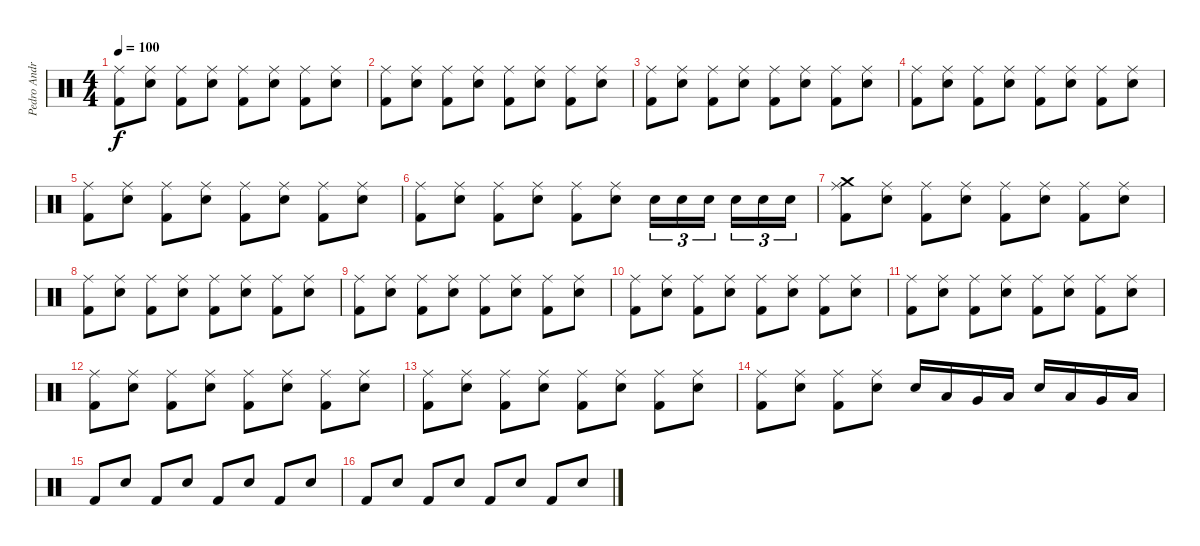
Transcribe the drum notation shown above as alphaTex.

\track ("Pedro Andreu" "Pedro Andr") {instrument percussion}
\staff {score}
\articulation defaults
\ts (4 4)
\tempo 100
\clef neutral
\ks c
("Ride (middle)" "Kick (hit) 2").8{dy f} ("Ride (middle)" "Snare (hit) 2").8 ("Ride (middle)" "Kick (hit) 2").8 ("Ride (middle)" "Snare (hit) 2").8 ("Ride (middle)" "Kick (hit) 2").8 ("Snare (hit) 2" "Ride (middle)").8 ("Kick (hit) 2" "Ride (middle)").8 ("Snare (hit) 2" "Ride (middle)").8 |
("Ride (middle)" "Kick (hit) 2").8 ("Ride (middle)" "Snare (hit) 2").8 ("Ride (middle)" "Kick (hit) 2").8 ("Ride (middle)" "Snare (hit) 2").8 ("Ride (middle)" "Kick (hit) 2").8 ("Snare (hit) 2" "Ride (middle)").8 ("Kick (hit) 2" "Ride (middle)").8 ("Snare (hit) 2" "Ride (middle)").8 |
("Ride (middle)" "Kick (hit) 2").8 ("Ride (middle)" "Snare (hit) 2").8 ("Ride (middle)" "Kick (hit) 2").8 ("Ride (middle)" "Snare (hit) 2").8 ("Ride (middle)" "Kick (hit) 2").8 ("Snare (hit) 2" "Ride (middle)").8 ("Kick (hit) 2" "Ride (middle)").8 ("Snare (hit) 2" "Ride (middle)").8 |
("Ride (middle)" "Kick (hit) 2").8 ("Ride (middle)" "Snare (hit) 2").8 ("Ride (middle)" "Kick (hit) 2").8 ("Ride (middle)" "Snare (hit) 2").8 ("Ride (middle)" "Kick (hit) 2").8 ("Snare (hit) 2" "Ride (middle)").8 ("Kick (hit) 2" "Ride (middle)").8 ("Snare (hit) 2" "Ride (middle)").8 |
("Ride (middle)" "Kick (hit) 2").8 ("Ride (middle)" "Snare (hit) 2").8 ("Ride (middle)" "Kick (hit) 2").8 ("Ride (middle)" "Snare (hit) 2").8 ("Ride (middle)" "Kick (hit) 2").8 ("Snare (hit) 2" "Ride (middle)").8 ("Kick (hit) 2" "Ride (middle)").8 ("Snare (hit) 2" "Ride (middle)").8 |
("Ride (middle)" "Kick (hit) 2").8 ("Ride (middle)" "Snare (hit) 2").8 ("Ride (middle)" "Kick (hit) 2").8 ("Ride (middle)" "Snare (hit) 2").8 ("Ride (middle)" "Kick (hit) 2").8 ("Snare (hit) 2" "Ride (middle)").8 "Snare (hit) 2".16{tu (3 2)} "Snare (hit) 2".16{tu (3 2)} "Snare (hit) 2".16{tu (3 2) beam splitsecondary} "Snare (hit) 2".16{tu (3 2)} "Snare (hit) 2".16{tu (3 2)} "Snare (hit) 2".16{tu (3 2)} |
("Crash medium (hit)" "Ride (middle)" "Kick (hit) 2").8 ("Ride (middle)" "Snare (hit) 2").8 ("Ride (middle)" "Kick (hit) 2").8 ("Ride (middle)" "Snare (hit) 2").8 ("Ride (middle)" "Kick (hit) 2").8 ("Snare (hit) 2" "Ride (middle)").8 ("Kick (hit) 2" "Ride (middle)").8 ("Snare (hit) 2" "Ride (middle)").8 |
("Ride (middle)" "Kick (hit) 2").8 ("Ride (middle)" "Snare (hit) 2").8 ("Ride (middle)" "Kick (hit) 2").8 ("Ride (middle)" "Snare (hit) 2").8 ("Ride (middle)" "Kick (hit) 2").8 ("Snare (hit) 2" "Ride (middle)").8 ("Kick (hit) 2" "Ride (middle)").8 ("Snare (hit) 2" "Ride (middle)").8 |
("Ride (middle)" "Kick (hit) 2").8 ("Ride (middle)" "Snare (hit) 2").8 ("Ride (middle)" "Kick (hit) 2").8 ("Ride (middle)" "Snare (hit) 2").8 ("Ride (middle)" "Kick (hit) 2").8 ("Snare (hit) 2" "Ride (middle)").8 ("Kick (hit) 2" "Ride (middle)").8 ("Snare (hit) 2" "Ride (middle)").8 |
("Ride (middle)" "Kick (hit) 2").8 ("Ride (middle)" "Snare (hit) 2").8 ("Ride (middle)" "Kick (hit) 2").8 ("Ride (middle)" "Snare (hit) 2").8 ("Ride (middle)" "Kick (hit) 2").8 ("Snare (hit) 2" "Ride (middle)").8 ("Kick (hit) 2" "Ride (middle)").8 ("Snare (hit) 2" "Ride (middle)").8 |
("Ride (middle)" "Kick (hit) 2").8 ("Ride (middle)" "Snare (hit) 2").8 ("Ride (middle)" "Kick (hit) 2").8 ("Ride (middle)" "Snare (hit) 2").8 ("Ride (middle)" "Kick (hit) 2").8 ("Snare (hit) 2" "Ride (middle)").8 ("Kick (hit) 2" "Ride (middle)").8 ("Snare (hit) 2" "Ride (middle)").8 |
("Ride (middle)" "Kick (hit) 2").8 ("Ride (middle)" "Snare (hit) 2").8 ("Ride (middle)" "Kick (hit) 2").8 ("Ride (middle)" "Snare (hit) 2").8 ("Ride (middle)" "Kick (hit) 2").8 ("Snare (hit) 2" "Ride (middle)").8 ("Kick (hit) 2" "Ride (middle)").8 ("Snare (hit) 2" "Ride (middle)").8 |
("Ride (middle)" "Kick (hit) 2").8 ("Ride (middle)" "Snare (hit) 2").8 ("Ride (middle)" "Kick (hit) 2").8 ("Ride (middle)" "Snare (hit) 2").8 ("Ride (middle)" "Kick (hit) 2").8 ("Snare (hit) 2" "Ride (middle)").8 ("Kick (hit) 2" "Ride (middle)").8 ("Snare (hit) 2" "Ride (middle)").8 |
("Ride (middle)" "Kick (hit) 2").8 ("Ride (middle)" "Snare (hit) 2").8 ("Ride (middle)" "Kick (hit) 2").8 ("Ride (middle)" "Snare (hit) 2").8 "Snare (hit) 2".16 "Low Tom (hit)".16 "Very Low Tom (hit)".16 "Low Floor Tom (hit)".16 "Snare (hit) 2".16 "Low Tom (hit)".16 "Very Low Tom (hit)".16 "Low Floor Tom (hit)".16 |
"Kick (hit) 2".8 "Snare (hit) 2".8 "Kick (hit) 2".8 "Snare (hit) 2".8 "Kick (hit) 2".8 "Snare (hit) 2".8 "Kick (hit) 2".8 "Snare (hit) 2".8 |
"Kick (hit) 2".8 "Snare (hit) 2".8 "Kick (hit) 2".8 "Snare (hit) 2".8 "Kick (hit) 2".8 "Snare (hit) 2".8 "Kick (hit) 2".8 "Snare (hit) 2".8
